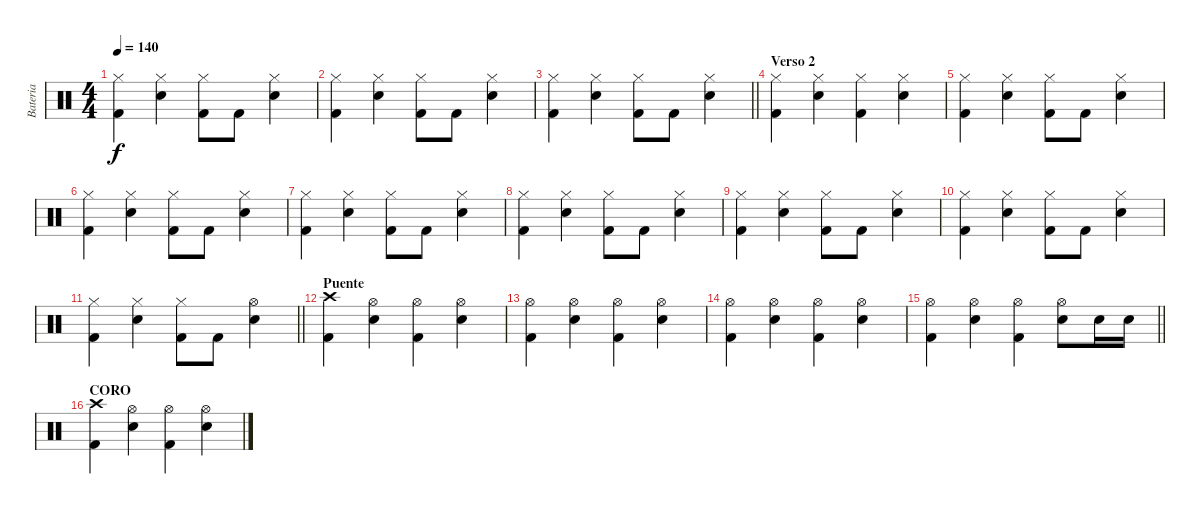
\track ("Bateria" "Bateria") {instrument percussion}
\staff {score}
\articulation defaults
\ts (4 4)
\tempo 140
\clef neutral
\ks c
("Hi-Hat (closed)" "Kick (hit) 2").4{dy f} ("Hi-Hat (closed)" "Electric Snare (hit)").4 ("Hi-Hat (closed)" "Kick (hit) 2").8 "Kick (hit) 2".8 ("Hi-Hat (closed)" "Electric Snare (hit)").4 |
("Hi-Hat (closed)" "Kick (hit) 2").4 ("Hi-Hat (closed)" "Electric Snare (hit)").4 ("Hi-Hat (closed)" "Kick (hit) 2").8 "Kick (hit) 2".8 ("Hi-Hat (closed)" "Electric Snare (hit)").4 |
\barLineRight lightlight
("Hi-Hat (closed)" "Kick (hit) 2").4 ("Hi-Hat (closed)" "Electric Snare (hit)").4 ("Hi-Hat (closed)" "Kick (hit) 2").8 "Kick (hit) 2".8 ("Hi-Hat (closed)" "Electric Snare (hit)").4 |
\section ("" "Verso 2")
("Hi-Hat (closed)" "Kick (hit) 2").4 ("Hi-Hat (closed)" "Electric Snare (hit)").4 ("Hi-Hat (closed)" "Kick (hit) 2").4 ("Hi-Hat (closed)" "Electric Snare (hit)").4 |
("Hi-Hat (closed)" "Kick (hit) 2").4 ("Hi-Hat (closed)" "Electric Snare (hit)").4 ("Hi-Hat (closed)" "Kick (hit) 2").8 "Kick (hit) 2".8 ("Hi-Hat (closed)" "Electric Snare (hit)").4 |
("Hi-Hat (closed)" "Kick (hit) 2").4 ("Hi-Hat (closed)" "Electric Snare (hit)").4 ("Hi-Hat (closed)" "Kick (hit) 2").8 "Kick (hit) 2".8 ("Hi-Hat (closed)" "Electric Snare (hit)").4 |
("Hi-Hat (closed)" "Kick (hit) 2").4 ("Hi-Hat (closed)" "Electric Snare (hit)").4 ("Hi-Hat (closed)" "Kick (hit) 2").8 "Kick (hit) 2".8 ("Hi-Hat (closed)" "Electric Snare (hit)").4 |
("Hi-Hat (closed)" "Kick (hit) 2").4 ("Hi-Hat (closed)" "Electric Snare (hit)").4 ("Hi-Hat (closed)" "Kick (hit) 2").8 "Kick (hit) 2".8 ("Hi-Hat (closed)" "Electric Snare (hit)").4 |
("Hi-Hat (closed)" "Kick (hit) 2").4 ("Hi-Hat (closed)" "Electric Snare (hit)").4 ("Hi-Hat (closed)" "Kick (hit) 2").8 "Kick (hit) 2".8 ("Hi-Hat (closed)" "Electric Snare (hit)").4 |
("Hi-Hat (closed)" "Kick (hit) 2").4 ("Hi-Hat (closed)" "Electric Snare (hit)").4 ("Hi-Hat (closed)" "Kick (hit) 2").8 "Kick (hit) 2".8 ("Hi-Hat (closed)" "Electric Snare (hit)").4 |
\barLineRight lightlight
("Hi-Hat (closed)" "Kick (hit) 2").4 ("Hi-Hat (closed)" "Electric Snare (hit)").4 ("Hi-Hat (closed)" "Kick (hit) 2").8 "Kick (hit) 2".8 ("Hi-Hat (open)" "Electric Snare (hit)").4 |
\section ("" "Puente")
("Crash high (hit)" "Kick (hit) 2").4 ("Hi-Hat (open)" "Electric Snare (hit)").4 ("Hi-Hat (open)" "Kick (hit) 2").4 ("Hi-Hat (open)" "Electric Snare (hit)").4 |
("Hi-Hat (open)" "Kick (hit) 2").4 ("Hi-Hat (open)" "Electric Snare (hit)").4 ("Hi-Hat (open)" "Kick (hit) 2").4 ("Hi-Hat (open)" "Electric Snare (hit)").4 |
("Hi-Hat (open)" "Kick (hit) 2").4 ("Hi-Hat (open)" "Electric Snare (hit)").4 ("Hi-Hat (open)" "Kick (hit) 2").4 ("Hi-Hat (open)" "Electric Snare (hit)").4 |
\barLineRight lightlight
("Hi-Hat (open)" "Kick (hit) 2").4 ("Hi-Hat (open)" "Electric Snare (hit)").4 ("Hi-Hat (open)" "Kick (hit) 2").4 ("Hi-Hat (open)" "Electric Snare (hit)").8 "Electric Snare (hit)".16 "Electric Snare (hit)".16 |
\section ("" "CORO")
("Crash high (hit)" "Kick (hit) 2").4 ("Hi-Hat (open)" "Electric Snare (hit)").4 ("Hi-Hat (open)" "Kick (hit) 2").4 ("Hi-Hat (open)" "Electric Snare (hit)").4
